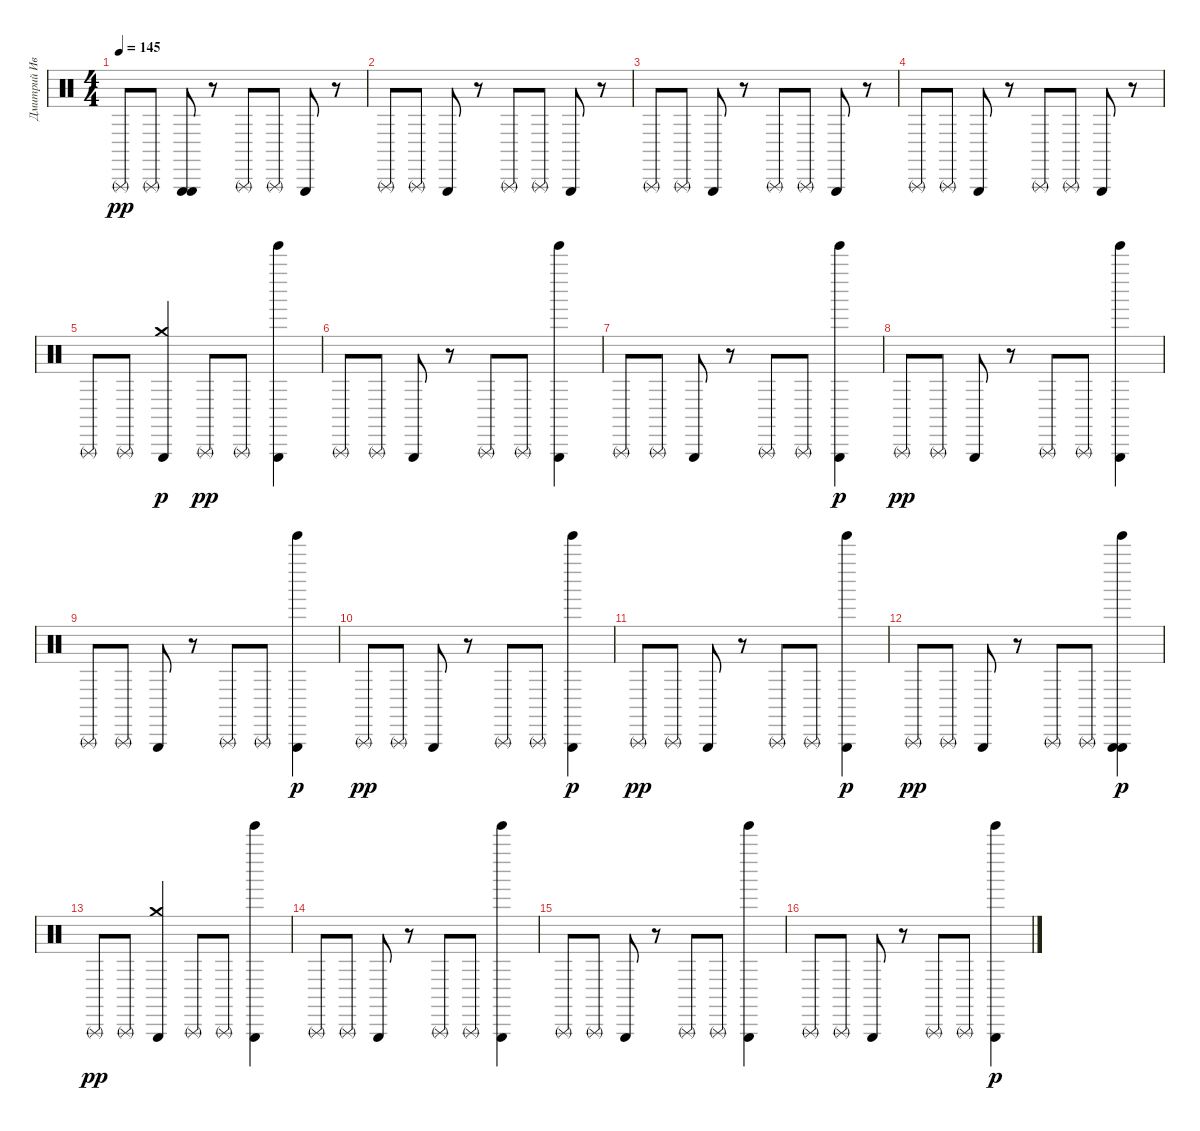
\track ("Дмитрий Иванов" "Дмитрий Ив") {instrument percussion}
\staff {score}
\articulation defaults
\ts (4 4)
\tempo 145
\clef neutral
\ks c "Triangle (rnute)".8{dy pp} "Triangle (rnute)".8
("Triangle (hit)" "Triangle (hit)").8 r.8 "Triangle (rnute)".8 "Triangle (rnute)".8 "Triangle (hit)".8 r.8 |
"Triangle (rnute)".8 "Triangle (rnute)".8 "Triangle (hit)".8 r.8 "Triangle (rnute)".8 "Triangle (rnute)".8 "Triangle (hit)".8 r.8 |
"Triangle (rnute)".8 "Triangle (rnute)".8 "Triangle (hit)".8 r.8 "Triangle (rnute)".8 "Triangle (rnute)".8 "Triangle (hit)".8 r.8 |
"Triangle (rnute)".8 "Triangle (rnute)".8 "Triangle (hit)".8 r.8 "Triangle (rnute)".8 "Triangle (rnute)".8 "Triangle (hit)".8 r.8 |
"Triangle (rnute)".8 "Triangle (rnute)".8 ("Crash medium (hit)" "Triangle (hit)").4{dy p} "Triangle (rnute)".8{dy pp} "Triangle (rnute)".8 ("Triangle (hit)" "Tinkle Bell (hit)").4 |
"Triangle (rnute)".8 "Triangle (rnute)".8 "Triangle (hit)".8 r.8 "Triangle (rnute)".8 "Triangle (rnute)".8 ("Tinkle Bell (hit)" "Triangle (hit)").4 |
"Triangle (rnute)".8 "Triangle (rnute)".8 "Triangle (hit)".8 r.8 "Triangle (rnute)".8 "Triangle (rnute)".8 ("Tinkle Bell (hit)" "Triangle (hit)").4{dy p} |
"Triangle (rnute)".8{dy pp} "Triangle (rnute)".8 "Triangle (hit)".8 r.8 "Triangle (rnute)".8 "Triangle (rnute)".8 ("Tinkle Bell (hit)" "Triangle (hit)").4 |
"Triangle (rnute)".8 "Triangle (rnute)".8 "Triangle (hit)".8 r.8 "Triangle (rnute)".8 "Triangle (rnute)".8 ("Tinkle Bell (hit)" "Triangle (hit)").4{dy p} |
"Triangle (rnute)".8{dy pp} "Triangle (rnute)".8 "Triangle (hit)".8 r.8 "Triangle (rnute)".8 "Triangle (rnute)".8 ("Tinkle Bell (hit)" "Triangle (hit)").4{dy p} |
"Triangle (rnute)".8{dy pp} "Triangle (rnute)".8 "Triangle (hit)".8 r.8 "Triangle (rnute)".8 "Triangle (rnute)".8 ("Tinkle Bell (hit)" "Triangle (hit)").4{dy p} |
"Triangle (rnute)".8{dy pp} "Triangle (rnute)".8 "Triangle (hit)".8 r.8 "Triangle (rnute)".8 "Triangle (rnute)".8 ("Tinkle Bell (hit)" "Triangle (hit)" "Triangle (hit)").4{dy p} |
"Triangle (rnute)".8{dy pp} "Triangle (rnute)".8 ("Triangle (hit)" "Crash medium (hit)").4 "Triangle (rnute)".8 "Triangle (rnute)".8 ("Tinkle Bell (hit)" "Triangle (hit)").4 |
"Triangle (rnute)".8 "Triangle (rnute)".8 "Triangle (hit)".8 r.8 "Triangle (rnute)".8 "Triangle (rnute)".8 ("Tinkle Bell (hit)" "Triangle (hit)").4 |
"Triangle (rnute)".8 "Triangle (rnute)".8 "Triangle (hit)".8 r.8 "Triangle (rnute)".8 "Triangle (rnute)".8 ("Tinkle Bell (hit)" "Triangle (hit)").4 |
"Triangle (rnute)".8 "Triangle (rnute)".8 "Triangle (hit)".8 r.8 "Triangle (rnute)".8 "Triangle (rnute)".8 ("Tinkle Bell (hit)" "Triangle (hit)").4{dy p}
